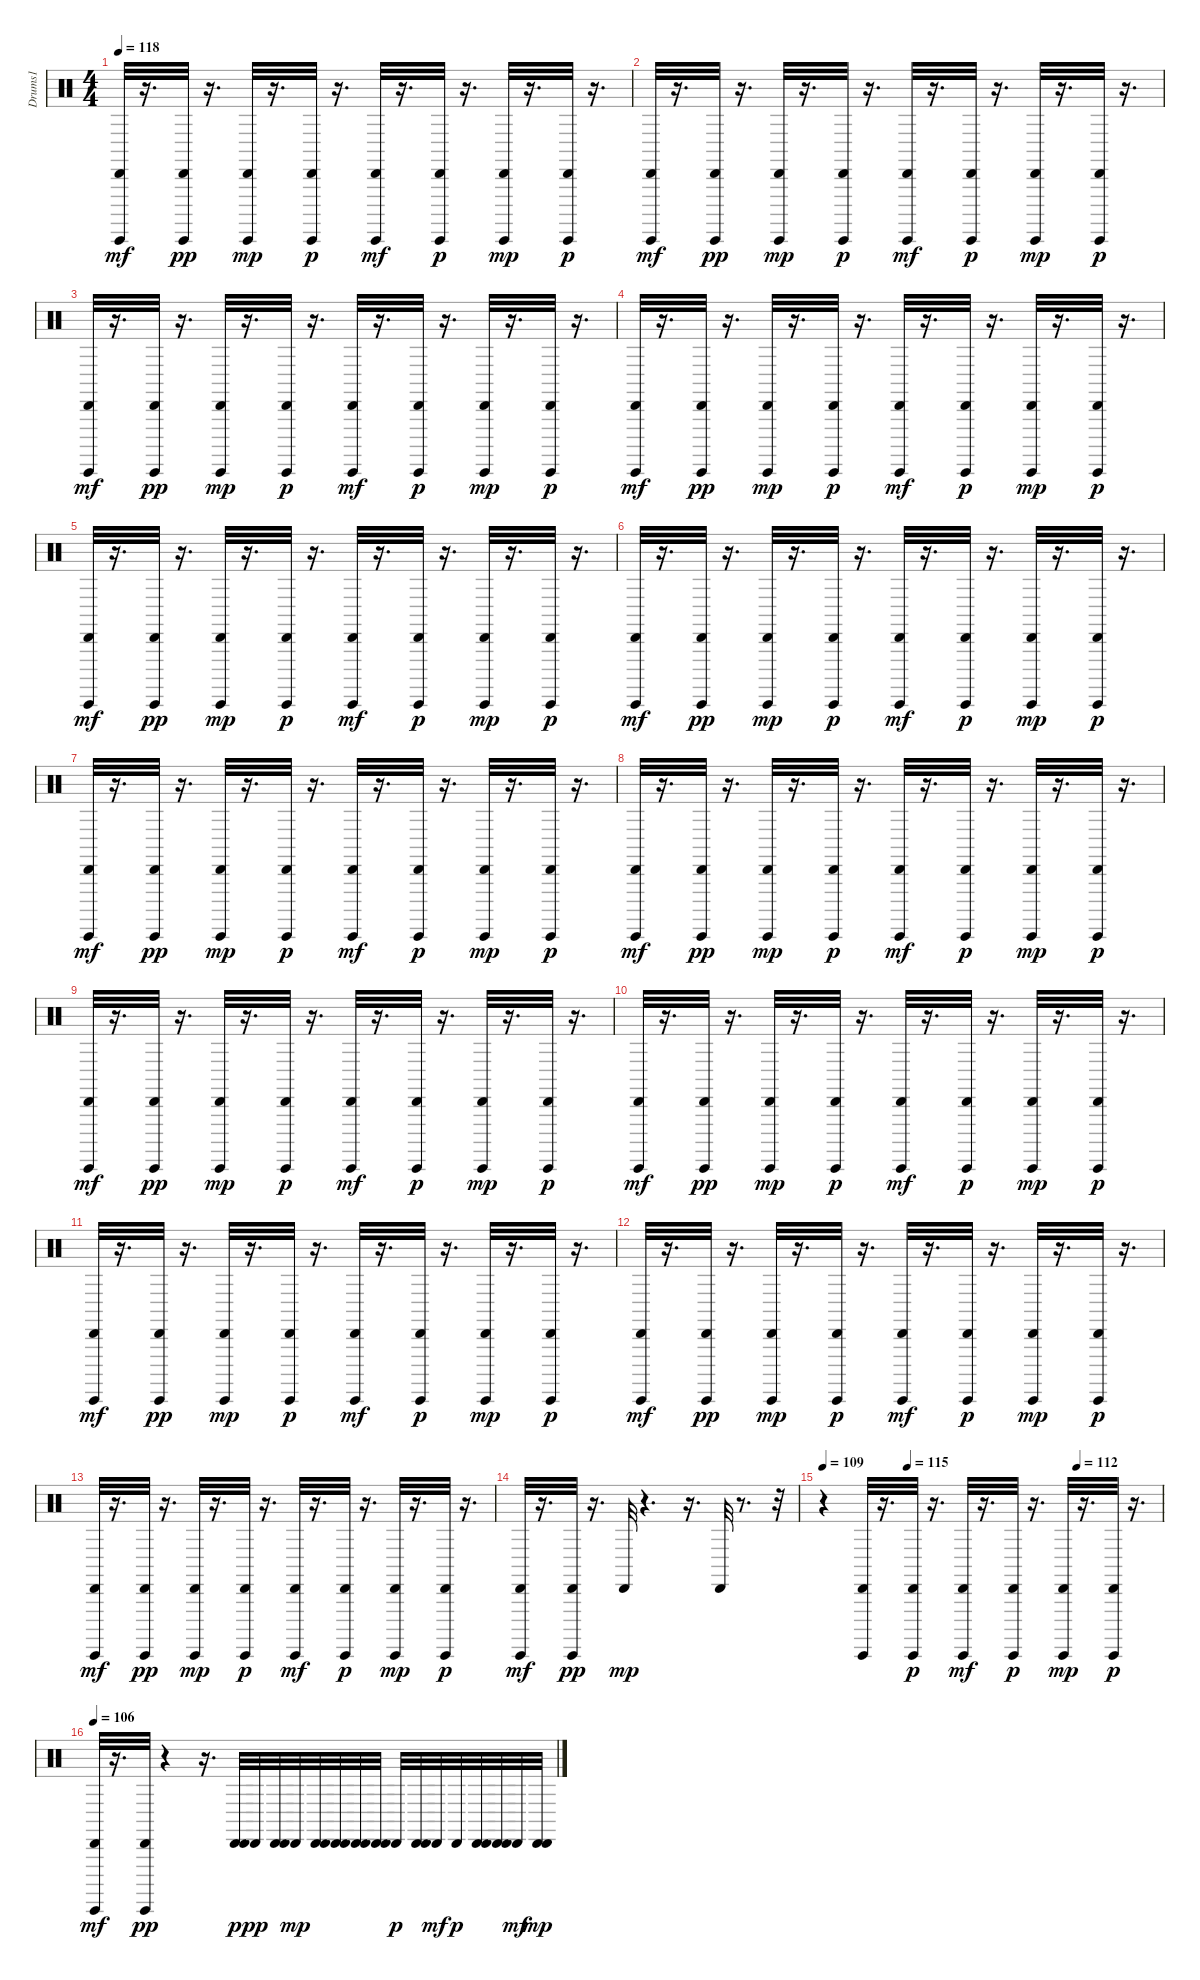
\track ("Drums1" "Drums1") {instrument percussion}
\staff {score}
\articulation defaults
\ts (4 4)
\tempo 118
\clef neutral
\ks c
("Guiro (hit)" "Cabasa (hit)").32{dy mf} r.16{d} ("Guiro (hit)" "Cabasa (hit)").32{dy pp} r.16{d} ("Guiro (hit)" "Cabasa (hit)").32{dy mp} r.16{d} ("Guiro (hit)" "Cabasa (hit)").32{dy p} r.16{d} ("Guiro (hit)" "Cabasa (hit)").32{dy mf} r.16{d} ("Guiro (hit)" "Cabasa (hit)").32{dy p} r.16{d} ("Guiro (hit)" "Cabasa (hit)").32{dy mp} r.16{d} ("Guiro (hit)" "Cabasa (hit)").32{dy p} r.16{d} |
("Guiro (hit)" "Cabasa (hit)").32{dy mf} r.16{d} ("Guiro (hit)" "Cabasa (hit)").32{dy pp} r.16{d} ("Guiro (hit)" "Cabasa (hit)").32{dy mp} r.16{d} ("Guiro (hit)" "Cabasa (hit)").32{dy p} r.16{d} ("Guiro (hit)" "Cabasa (hit)").32{dy mf} r.16{d} ("Guiro (hit)" "Cabasa (hit)").32{dy p} r.16{d} ("Guiro (hit)" "Cabasa (hit)").32{dy mp} r.16{d} ("Guiro (hit)" "Cabasa (hit)").32{dy p} r.16{d} |
("Guiro (hit)" "Cabasa (hit)").32{dy mf} r.16{d} ("Guiro (hit)" "Cabasa (hit)").32{dy pp} r.16{d} ("Guiro (hit)" "Cabasa (hit)").32{dy mp} r.16{d} ("Guiro (hit)" "Cabasa (hit)").32{dy p} r.16{d} ("Guiro (hit)" "Cabasa (hit)").32{dy mf} r.16{d} ("Guiro (hit)" "Cabasa (hit)").32{dy p} r.16{d} ("Guiro (hit)" "Cabasa (hit)").32{dy mp} r.16{d} ("Guiro (hit)" "Cabasa (hit)").32{dy p} r.16{d} |
("Guiro (hit)" "Cabasa (hit)").32{dy mf} r.16{d} ("Guiro (hit)" "Cabasa (hit)").32{dy pp} r.16{d} ("Guiro (hit)" "Cabasa (hit)").32{dy mp} r.16{d} ("Guiro (hit)" "Cabasa (hit)").32{dy p} r.16{d} ("Guiro (hit)" "Cabasa (hit)").32{dy mf} r.16{d} ("Guiro (hit)" "Cabasa (hit)").32{dy p} r.16{d} ("Guiro (hit)" "Cabasa (hit)").32{dy mp} r.16{d} ("Guiro (hit)" "Cabasa (hit)").32{dy p} r.16{d} |
("Guiro (hit)" "Cabasa (hit)").32{dy mf} r.16{d} ("Guiro (hit)" "Cabasa (hit)").32{dy pp} r.16{d} ("Guiro (hit)" "Cabasa (hit)").32{dy mp} r.16{d} ("Guiro (hit)" "Cabasa (hit)").32{dy p} r.16{d} ("Guiro (hit)" "Cabasa (hit)").32{dy mf} r.16{d} ("Guiro (hit)" "Cabasa (hit)").32{dy p} r.16{d} ("Guiro (hit)" "Cabasa (hit)").32{dy mp} r.16{d} ("Guiro (hit)" "Cabasa (hit)").32{dy p} r.16{d} |
("Guiro (hit)" "Cabasa (hit)").32{dy mf} r.16{d} ("Guiro (hit)" "Cabasa (hit)").32{dy pp} r.16{d} ("Guiro (hit)" "Cabasa (hit)").32{dy mp} r.16{d} ("Guiro (hit)" "Cabasa (hit)").32{dy p} r.16{d} ("Guiro (hit)" "Cabasa (hit)").32{dy mf} r.16{d} ("Guiro (hit)" "Cabasa (hit)").32{dy p} r.16{d} ("Guiro (hit)" "Cabasa (hit)").32{dy mp} r.16{d} ("Guiro (hit)" "Cabasa (hit)").32{dy p} r.16{d} |
("Guiro (hit)" "Cabasa (hit)").32{dy mf} r.16{d} ("Guiro (hit)" "Cabasa (hit)").32{dy pp} r.16{d} ("Guiro (hit)" "Cabasa (hit)").32{dy mp} r.16{d} ("Guiro (hit)" "Cabasa (hit)").32{dy p} r.16{d} ("Guiro (hit)" "Cabasa (hit)").32{dy mf} r.16{d} ("Guiro (hit)" "Cabasa (hit)").32{dy p} r.16{d} ("Guiro (hit)" "Cabasa (hit)").32{dy mp} r.16{d} ("Guiro (hit)" "Cabasa (hit)").32{dy p} r.16{d} |
("Guiro (hit)" "Cabasa (hit)").32{dy mf} r.16{d} ("Guiro (hit)" "Cabasa (hit)").32{dy pp} r.16{d} ("Guiro (hit)" "Cabasa (hit)").32{dy mp} r.16{d} ("Guiro (hit)" "Cabasa (hit)").32{dy p} r.16{d} ("Guiro (hit)" "Cabasa (hit)").32{dy mf} r.16{d} ("Guiro (hit)" "Cabasa (hit)").32{dy p} r.16{d} ("Guiro (hit)" "Cabasa (hit)").32{dy mp} r.16{d} ("Guiro (hit)" "Cabasa (hit)").32{dy p} r.16{d} |
("Guiro (hit)" "Cabasa (hit)").32{dy mf} r.16{d} ("Guiro (hit)" "Cabasa (hit)").32{dy pp} r.16{d} ("Guiro (hit)" "Cabasa (hit)").32{dy mp} r.16{d} ("Guiro (hit)" "Cabasa (hit)").32{dy p} r.16{d} ("Guiro (hit)" "Cabasa (hit)").32{dy mf} r.16{d} ("Guiro (hit)" "Cabasa (hit)").32{dy p} r.16{d} ("Guiro (hit)" "Cabasa (hit)").32{dy mp} r.16{d} ("Guiro (hit)" "Cabasa (hit)").32{dy p} r.16{d} |
("Guiro (hit)" "Cabasa (hit)").32{dy mf} r.16{d} ("Guiro (hit)" "Cabasa (hit)").32{dy pp} r.16{d} ("Guiro (hit)" "Cabasa (hit)").32{dy mp} r.16{d} ("Guiro (hit)" "Cabasa (hit)").32{dy p} r.16{d} ("Guiro (hit)" "Cabasa (hit)").32{dy mf} r.16{d} ("Guiro (hit)" "Cabasa (hit)").32{dy p} r.16{d} ("Guiro (hit)" "Cabasa (hit)").32{dy mp} r.16{d} ("Guiro (hit)" "Cabasa (hit)").32{dy p} r.16{d} |
("Guiro (hit)" "Cabasa (hit)").32{dy mf} r.16{d} ("Guiro (hit)" "Cabasa (hit)").32{dy pp} r.16{d} ("Guiro (hit)" "Cabasa (hit)").32{dy mp} r.16{d} ("Guiro (hit)" "Cabasa (hit)").32{dy p} r.16{d} ("Guiro (hit)" "Cabasa (hit)").32{dy mf} r.16{d} ("Guiro (hit)" "Cabasa (hit)").32{dy p} r.16{d} ("Guiro (hit)" "Cabasa (hit)").32{dy mp} r.16{d} ("Guiro (hit)" "Cabasa (hit)").32{dy p} r.16{d} |
("Guiro (hit)" "Cabasa (hit)").32{dy mf} r.16{d} ("Guiro (hit)" "Cabasa (hit)").32{dy pp} r.16{d} ("Guiro (hit)" "Cabasa (hit)").32{dy mp} r.16{d} ("Guiro (hit)" "Cabasa (hit)").32{dy p} r.16{d} ("Guiro (hit)" "Cabasa (hit)").32{dy mf} r.16{d} ("Guiro (hit)" "Cabasa (hit)").32{dy p} r.16{d} ("Guiro (hit)" "Cabasa (hit)").32{dy mp} r.16{d} ("Guiro (hit)" "Cabasa (hit)").32{dy p} r.16{d} |
("Guiro (hit)" "Cabasa (hit)").32{dy mf} r.16{d} ("Guiro (hit)" "Cabasa (hit)").32{dy pp} r.16{d} ("Guiro (hit)" "Cabasa (hit)").32{dy mp} r.16{d} ("Guiro (hit)" "Cabasa (hit)").32{dy p} r.16{d} ("Guiro (hit)" "Cabasa (hit)").32{dy mf} r.16{d} ("Guiro (hit)" "Cabasa (hit)").32{dy p} r.16{d} ("Guiro (hit)" "Cabasa (hit)").32{dy mp} r.16{d} ("Guiro (hit)" "Cabasa (hit)").32{dy p} r.16{d} |
("Guiro (hit)" "Cabasa (hit)").32{dy mf} r.16{d} ("Guiro (hit)" "Cabasa (hit)").32{dy pp} r.16{d} "Cabasa (hit)".32{dy mp} r.4{d} r.16{d} "Cabasa (hit)".32 r.8{d} r.32 |
\tempo 109
\tempo (115 0.25)
\tempo (112 0.75)
r.4 ("Guiro (hit)" "Cabasa (hit)").32 r.16{d} ("Guiro (hit)" "Cabasa (hit)").32{dy p} r.16{d} ("Guiro (hit)" "Cabasa (hit)").32{dy mf} r.16{d} ("Guiro (hit)" "Cabasa (hit)").32{dy p} r.16{d} ("Guiro (hit)" "Cabasa (hit)").32{dy mp} r.16{d} ("Guiro (hit)" "Cabasa (hit)").32{dy p} r.16{d} |
\tempo 106
("Guiro (hit)" "Cabasa (hit)").32{dy mf} r.16{d} ("Guiro (hit)" "Cabasa (hit)").32{dy pp} r.4 r.16{d} ("Cabasa (hit)" "Cabasa (hit)").32{dy p} "Cabasa (hit)".32{dy pp} ("Cabasa (hit)" "Cabasa (hit)").32 "Cabasa (hit)".32{dy mp} ("Cabasa (hit)" "Cabasa (hit)").32 ("Cabasa (hit)" "Cabasa (hit)").32 ("Cabasa (hit)" "Cabasa (hit)").32 ("Cabasa (hit)" "Cabasa (hit)").32 "Cabasa (hit)".32{dy p} ("Cabasa (hit)" "Cabasa (hit)").32 "Cabasa (hit)".32{dy mf} "Cabasa (hit)".32{dy p} ("Cabasa (hit)" "Cabasa (hit)").32 ("Cabasa (hit)" "Cabasa (hit)").32 "Cabasa (hit)".32{dy mf} ("Cabasa (hit)" "Cabasa (hit)").32{dy mp}
